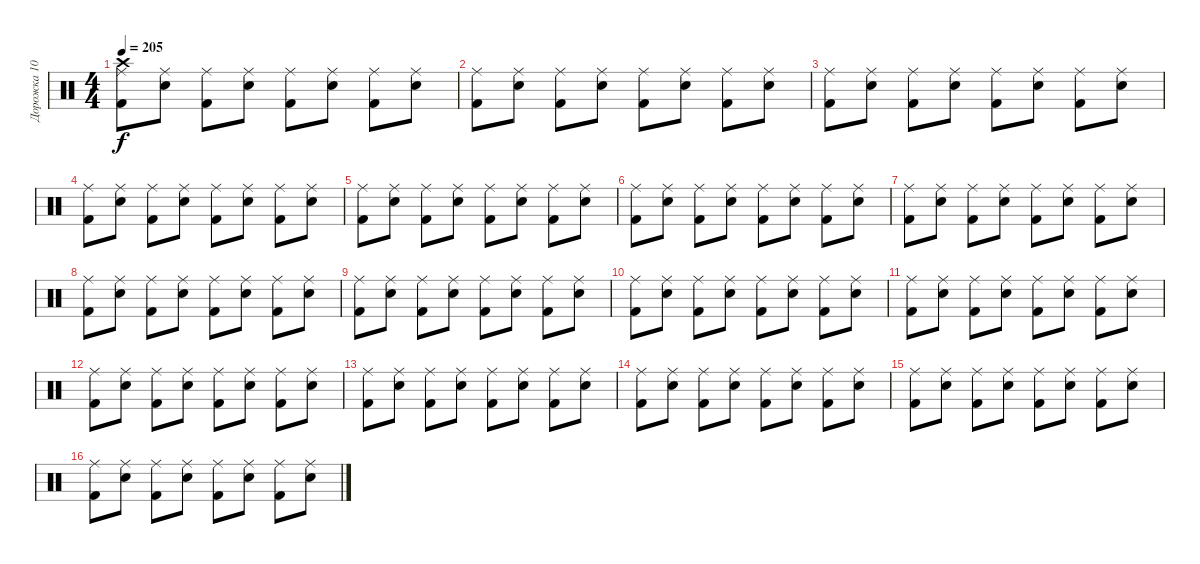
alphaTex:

\track ("Дорожка 10" "Дорожка 10") {instrument percussion}
\staff {score}
\articulation defaults
\ts (4 4)
\tempo 205
\clef neutral
\ks c
("Crash high (hit)" "Ride (middle)" "Kick (hit) 2").8{dy f} ("Ride (middle)" "Snare (hit) 2").8 ("Ride (middle)" "Kick (hit) 2").8 ("Ride (middle)" "Snare (hit) 2").8 ("Ride (middle)" "Kick (hit) 2").8 ("Ride (middle)" "Snare (hit) 2").8 ("Ride (middle)" "Kick (hit) 2").8 ("Ride (middle)" "Snare (hit) 2").8 |
("Ride (middle)" "Kick (hit) 2").8 ("Ride (middle)" "Snare (hit) 2").8 ("Ride (middle)" "Kick (hit) 2").8 ("Ride (middle)" "Snare (hit) 2").8 ("Ride (middle)" "Kick (hit) 2").8 ("Ride (middle)" "Snare (hit) 2").8 ("Ride (middle)" "Kick (hit) 2").8 ("Ride (middle)" "Snare (hit) 2").8 |
("Ride (middle)" "Kick (hit) 2").8 ("Ride (middle)" "Snare (hit) 2").8 ("Ride (middle)" "Kick (hit) 2").8 ("Ride (middle)" "Snare (hit) 2").8 ("Ride (middle)" "Kick (hit) 2").8 ("Ride (middle)" "Snare (hit) 2").8 ("Ride (middle)" "Kick (hit) 2").8 ("Ride (middle)" "Snare (hit) 2").8 |
("Ride (middle)" "Kick (hit) 2").8 ("Ride (middle)" "Snare (hit) 2").8 ("Ride (middle)" "Kick (hit) 2").8 ("Ride (middle)" "Snare (hit) 2").8 ("Ride (middle)" "Kick (hit) 2").8 ("Ride (middle)" "Snare (hit) 2").8 ("Ride (middle)" "Kick (hit) 2").8 ("Ride (middle)" "Snare (hit) 2").8 |
("Ride (middle)" "Kick (hit) 2").8 ("Ride (middle)" "Snare (hit) 2").8 ("Ride (middle)" "Kick (hit) 2").8 ("Ride (middle)" "Snare (hit) 2").8 ("Ride (middle)" "Kick (hit) 2").8 ("Ride (middle)" "Snare (hit) 2").8 ("Ride (middle)" "Kick (hit) 2").8 ("Ride (middle)" "Snare (hit) 2").8 |
("Ride (middle)" "Kick (hit) 2").8 ("Ride (middle)" "Snare (hit) 2").8 ("Ride (middle)" "Kick (hit) 2").8 ("Ride (middle)" "Snare (hit) 2").8 ("Ride (middle)" "Kick (hit) 2").8 ("Ride (middle)" "Snare (hit) 2").8 ("Ride (middle)" "Kick (hit) 2").8 ("Ride (middle)" "Snare (hit) 2").8 |
("Ride (middle)" "Kick (hit) 2").8 ("Ride (middle)" "Snare (hit) 2").8 ("Ride (middle)" "Kick (hit) 2").8 ("Ride (middle)" "Snare (hit) 2").8 ("Ride (middle)" "Kick (hit) 2").8 ("Ride (middle)" "Snare (hit) 2").8 ("Ride (middle)" "Kick (hit) 2").8 ("Ride (middle)" "Snare (hit) 2").8 |
("Ride (middle)" "Kick (hit) 2").8 ("Ride (middle)" "Snare (hit) 2").8 ("Ride (middle)" "Kick (hit) 2").8 ("Ride (middle)" "Snare (hit) 2").8 ("Ride (middle)" "Kick (hit) 2").8 ("Ride (middle)" "Snare (hit) 2").8 ("Ride (middle)" "Kick (hit) 2").8 ("Ride (middle)" "Snare (hit) 2").8 |
("Ride (middle)" "Kick (hit) 2").8 ("Ride (middle)" "Snare (hit) 2").8 ("Ride (middle)" "Kick (hit) 2").8 ("Ride (middle)" "Snare (hit) 2").8 ("Ride (middle)" "Kick (hit) 2").8 ("Ride (middle)" "Snare (hit) 2").8 ("Ride (middle)" "Kick (hit) 2").8 ("Ride (middle)" "Snare (hit) 2").8 |
("Ride (middle)" "Kick (hit) 2").8 ("Ride (middle)" "Snare (hit) 2").8 ("Ride (middle)" "Kick (hit) 2").8 ("Ride (middle)" "Snare (hit) 2").8 ("Ride (middle)" "Kick (hit) 2").8 ("Ride (middle)" "Snare (hit) 2").8 ("Ride (middle)" "Kick (hit) 2").8 ("Ride (middle)" "Snare (hit) 2").8 |
("Ride (middle)" "Kick (hit) 2").8 ("Ride (middle)" "Snare (hit) 2").8 ("Ride (middle)" "Kick (hit) 2").8 ("Ride (middle)" "Snare (hit) 2").8 ("Ride (middle)" "Kick (hit) 2").8 ("Ride (middle)" "Snare (hit) 2").8 ("Ride (middle)" "Kick (hit) 2").8 ("Ride (middle)" "Snare (hit) 2").8 |
("Ride (middle)" "Kick (hit) 2").8 ("Ride (middle)" "Snare (hit) 2").8 ("Ride (middle)" "Kick (hit) 2").8 ("Ride (middle)" "Snare (hit) 2").8 ("Ride (middle)" "Kick (hit) 2").8 ("Ride (middle)" "Snare (hit) 2").8 ("Ride (middle)" "Kick (hit) 2").8 ("Ride (middle)" "Snare (hit) 2").8 |
("Ride (middle)" "Kick (hit) 2").8 ("Ride (middle)" "Snare (hit) 2").8 ("Ride (middle)" "Kick (hit) 2").8 ("Ride (middle)" "Snare (hit) 2").8 ("Ride (middle)" "Kick (hit) 2").8 ("Ride (middle)" "Snare (hit) 2").8 ("Ride (middle)" "Kick (hit) 2").8 ("Ride (middle)" "Snare (hit) 2").8 |
("Ride (middle)" "Kick (hit) 2").8 ("Ride (middle)" "Snare (hit) 2").8 ("Ride (middle)" "Kick (hit) 2").8 ("Ride (middle)" "Snare (hit) 2").8 ("Ride (middle)" "Kick (hit) 2").8 ("Ride (middle)" "Snare (hit) 2").8 ("Ride (middle)" "Kick (hit) 2").8 ("Ride (middle)" "Snare (hit) 2").8 |
("Ride (middle)" "Kick (hit) 2").8 ("Ride (middle)" "Snare (hit) 2").8 ("Ride (middle)" "Kick (hit) 2").8 ("Ride (middle)" "Snare (hit) 2").8 ("Ride (middle)" "Kick (hit) 2").8 ("Ride (middle)" "Snare (hit) 2").8 ("Ride (middle)" "Kick (hit) 2").8 ("Ride (middle)" "Snare (hit) 2").8 |
("Ride (middle)" "Kick (hit) 2").8 ("Ride (middle)" "Snare (hit) 2").8 ("Ride (middle)" "Kick (hit) 2").8 ("Ride (middle)" "Snare (hit) 2").8 ("Ride (middle)" "Kick (hit) 2").8 ("Ride (middle)" "Snare (hit) 2").8 ("Ride (middle)" "Kick (hit) 2").8 ("Ride (middle)" "Snare (hit) 2").8
